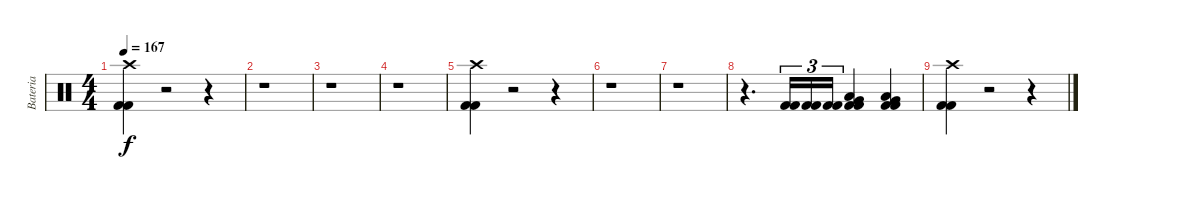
\track ("Bateria" "Bateria") {instrument percussion}
\staff {score}
\articulation defaults
\ts (4 4)
\tempo 167
\clef neutral
\ks c
("Kick (hit) 2" "Kick (hit) 2" "Crash high (hit)").4{dy f} r.2 r.4 |
r.1 |
r.1 |
r.1 |
("Kick (hit) 2" "Kick (hit) 2" "Crash high (hit)").4 r.2 r.4 |
r.1 |
r.1 |
r.4{d} ("Kick (hit) 2" "Kick (hit) 2").16{tu (3 2)} ("Kick (hit) 2" "Kick (hit) 2").16{tu (3 2)} ("Kick (hit) 2" "Kick (hit) 2").16{tu (3 2)} ("Kick (hit) 2" "Kick (hit) 2" "Low Tom (hit)" "Very Low Tom (hit)").4 ("Kick (hit) 2" "Kick (hit) 2" "Low Tom (hit)" "Very Low Tom (hit)").4 |
("Kick (hit) 2" "Kick (hit) 2" "Crash high (hit)").4 r.2 r.4
